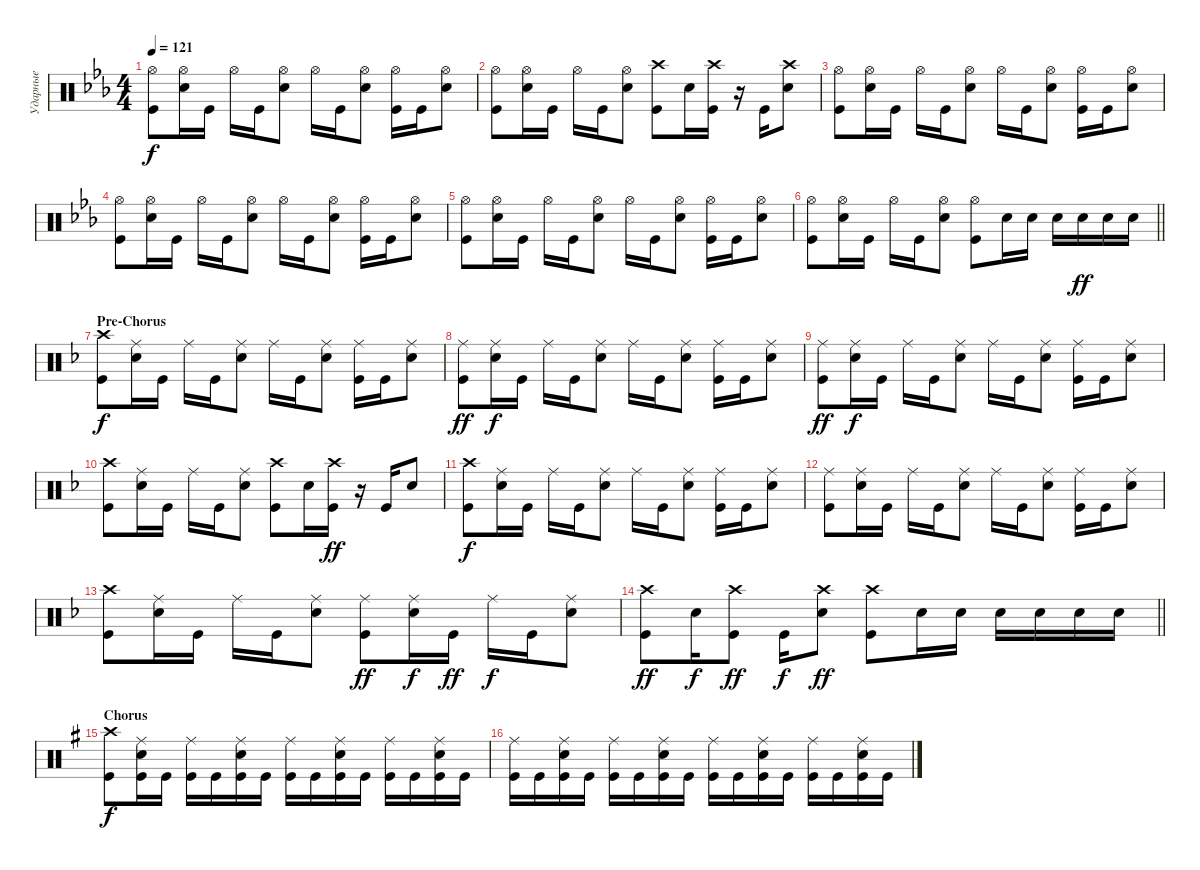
\track ("Ударные" "Ударные") {instrument percussion}
\staff {score}
\articulation defaults
\ts (4 4)
\tempo 121
\clef neutral
\ks cminor
("Kick (hit)" "Hi-Hat (open)").8{dy f} ("Snare (hit) 2" "Hi-Hat (open)").16 "Kick (hit)".16 "Hi-Hat (open)".16 "Kick (hit)".16 ("Snare (hit) 2" "Hi-Hat (open)").8 "Hi-Hat (open)".16 "Kick (hit)".16 ("Snare (hit) 2" "Hi-Hat (open)").8 ("Kick (hit)" "Hi-Hat (open)").16 "Kick (hit)".16 ("Snare (hit) 2" "Hi-Hat (open)").8 |
("Kick (hit)" "Hi-Hat (open)").8 ("Snare (hit) 2" "Hi-Hat (open)").16 "Kick (hit)".16 "Hi-Hat (open)".16 "Kick (hit)".16 ("Snare (hit) 2" "Hi-Hat (open)").8 ("Kick (hit)" "Crash high (hit)").8 "Snare (hit) 2".16 ("Kick (hit)" "Crash high (hit)").16 r.16 "Kick (hit)".16 ("Snare (hit) 2" "Crash high (hit)").8 |
("Kick (hit)" "Hi-Hat (open)").8 ("Snare (hit) 2" "Hi-Hat (open)").16 "Kick (hit)".16 "Hi-Hat (open)".16 "Kick (hit)".16 ("Snare (hit) 2" "Hi-Hat (open)").8 "Hi-Hat (open)".16 "Kick (hit)".16 ("Snare (hit) 2" "Hi-Hat (open)").8 ("Kick (hit)" "Hi-Hat (open)").16 "Kick (hit)".16 ("Snare (hit) 2" "Hi-Hat (open)").8 |
("Kick (hit)" "Hi-Hat (open)").8 ("Snare (hit) 2" "Hi-Hat (open)").16 "Kick (hit)".16 "Hi-Hat (open)".16 "Kick (hit)".16 ("Snare (hit) 2" "Hi-Hat (open)").8 "Hi-Hat (open)".16 "Kick (hit)".16 ("Snare (hit) 2" "Hi-Hat (open)").8 ("Kick (hit)" "Hi-Hat (open)").16 "Kick (hit)".16 ("Snare (hit) 2" "Hi-Hat (open)").8 |
("Kick (hit)" "Hi-Hat (open)").8 ("Snare (hit) 2" "Hi-Hat (open)").16 "Kick (hit)".16 "Hi-Hat (open)".16 "Kick (hit)".16 ("Snare (hit) 2" "Hi-Hat (open)").8 "Hi-Hat (open)".16 "Kick (hit)".16 ("Snare (hit) 2" "Hi-Hat (open)").8 ("Kick (hit)" "Hi-Hat (open)").16 "Kick (hit)".16 ("Snare (hit) 2" "Hi-Hat (open)").8 |
\barLineRight lightlight
("Kick (hit)" "Hi-Hat (open)").8 ("Snare (hit) 2" "Hi-Hat (open)").16 "Kick (hit)".16 "Hi-Hat (open)".16 "Kick (hit)".16 ("Snare (hit) 2" "Hi-Hat (open)").8 ("Kick (hit)" "Hi-Hat (open)").8 "Snare (hit) 2".16 "Snare (hit) 2".16 "Snare (hit) 2".16 "Snare (hit) 2".16{dy ff} "Snare (hit) 2".16 "Snare (hit) 2".16 |
\section ("" "Pre-Chorus")
\ks dminor
("Kick (hit)" "Crash high (hit)").8{dy f} ("Snare (hit) 2" "Ride (middle)").16 "Kick (hit)".16 "Ride (middle)".16 "Kick (hit)".16 ("Snare (hit) 2" "Ride (middle)").8 "Ride (middle)".16 "Kick (hit)".16 ("Snare (hit) 2" "Ride (middle)").8 ("Kick (hit)" "Ride (middle)").16 "Kick (hit)".16 ("Snare (hit) 2" "Ride (middle)").8 |
("Kick (hit)" "Ride (middle)").8{dy ff} ("Snare (hit) 2" "Ride (middle)").16{dy f} "Kick (hit)".16 "Ride (middle)".16 "Kick (hit)".16 ("Snare (hit) 2" "Ride (middle)").8 "Ride (middle)".16 "Kick (hit)".16 ("Snare (hit) 2" "Ride (middle)").8 ("Kick (hit)" "Ride (middle)").16 "Kick (hit)".16 ("Snare (hit) 2" "Ride (middle)").8 |
("Kick (hit)" "Ride (middle)").8{dy ff} ("Snare (hit) 2" "Ride (middle)").16{dy f} "Kick (hit)".16 "Ride (middle)".16 "Kick (hit)".16 ("Snare (hit) 2" "Ride (middle)").8 "Ride (middle)".16 "Kick (hit)".16 ("Snare (hit) 2" "Ride (middle)").8 ("Kick (hit)" "Ride (middle)").16 "Kick (hit)".16 ("Snare (hit) 2" "Ride (middle)").8 |
("Kick (hit)" "Crash high (hit)").8 ("Snare (hit) 2" "Ride (middle)").16 "Kick (hit)".16 "Ride (middle)".16 "Kick (hit)".16 ("Snare (hit) 2" "Ride (middle)").8 ("Kick (hit)" "Crash high (hit)").8 "Snare (hit) 2".16 ("Kick (hit)" "Crash high (hit)").16{dy ff} r.16 "Kick (hit)".16 "Snare (hit) 2".8 |
("Kick (hit)" "Crash high (hit)").8{dy f} ("Snare (hit) 2" "Ride (middle)").16 "Kick (hit)".16 "Ride (middle)".16 "Kick (hit)".16 ("Snare (hit) 2" "Ride (middle)").8 "Ride (middle)".16 "Kick (hit)".16 ("Snare (hit) 2" "Ride (middle)").8 ("Kick (hit)" "Ride (middle)").16 "Kick (hit)".16 ("Snare (hit) 2" "Ride (middle)").8 |
("Kick (hit)" "Ride (middle)").8 ("Snare (hit) 2" "Ride (middle)").16 "Kick (hit)".16 "Ride (middle)".16 "Kick (hit)".16 ("Snare (hit) 2" "Ride (middle)").8 "Ride (middle)".16 "Kick (hit)".16 ("Snare (hit) 2" "Ride (middle)").8 ("Kick (hit)" "Ride (middle)").16 "Kick (hit)".16 ("Snare (hit) 2" "Ride (middle)").8 |
("Kick (hit)" "Crash high (hit)").8 ("Snare (hit) 2" "Ride (middle)").16 "Kick (hit)".16 "Ride (middle)".16 "Kick (hit)".16 ("Snare (hit) 2" "Ride (middle)").8 ("Kick (hit)" "Ride (middle)").8{dy ff} ("Snare (hit) 2" "Ride (middle)").16{dy f} "Kick (hit)".16{dy ff} "Ride (middle)".16{dy f} "Kick (hit)".16 ("Snare (hit) 2" "Ride (middle)").8 |
\barLineRight lightlight
("Kick (hit)" "Crash high (hit)").8{dy ff} "Snare (hit) 2".16{dy f} ("Kick (hit)" "Crash high (hit)").8{dy ff} "Kick (hit)".16{dy f} ("Snare (hit) 2" "Crash high (hit)").8{dy ff} ("Kick (hit)" "Crash high (hit)").8 "Snare (hit) 2".16 "Snare (hit) 2".16 "Snare (hit) 2".16 "Snare (hit) 2".16 "Snare (hit) 2".16 "Snare (hit) 2".16 |
\section ("" "Chorus")
\ks eminor
("Kick (hit)" "Crash high (hit)").8{dy f} ("Kick (hit)" "Snare (hit) 2" "Ride (middle)").16 "Kick (hit)".16 ("Kick (hit)" "Ride (middle)").16 "Kick (hit)".16 ("Kick (hit)" "Snare (hit) 2" "Ride (middle)").16 "Kick (hit)".16 ("Kick (hit)" "Ride (middle)").16 "Kick (hit)".16 ("Kick (hit)" "Snare (hit) 2" "Ride (middle)").16 "Kick (hit)".16 ("Kick (hit)" "Ride (middle)").16 "Kick (hit)".16 ("Kick (hit)" "Snare (hit) 2" "Ride (middle)").16 "Kick (hit)".16 |
("Kick (hit)" "Ride (middle)").16 "Kick (hit)".16 ("Kick (hit)" "Snare (hit) 2" "Ride (middle)").16 "Kick (hit)".16 ("Kick (hit)" "Ride (middle)").16 "Kick (hit)".16 ("Kick (hit)" "Snare (hit) 2" "Ride (middle)").16 "Kick (hit)".16 ("Kick (hit)" "Ride (middle)").16 "Kick (hit)".16 ("Kick (hit)" "Snare (hit) 2" "Ride (middle)").16 "Kick (hit)".16 ("Kick (hit)" "Ride (middle)").16 "Kick (hit)".16 ("Kick (hit)" "Snare (hit) 2" "Ride (middle)").16 "Kick (hit)".16
